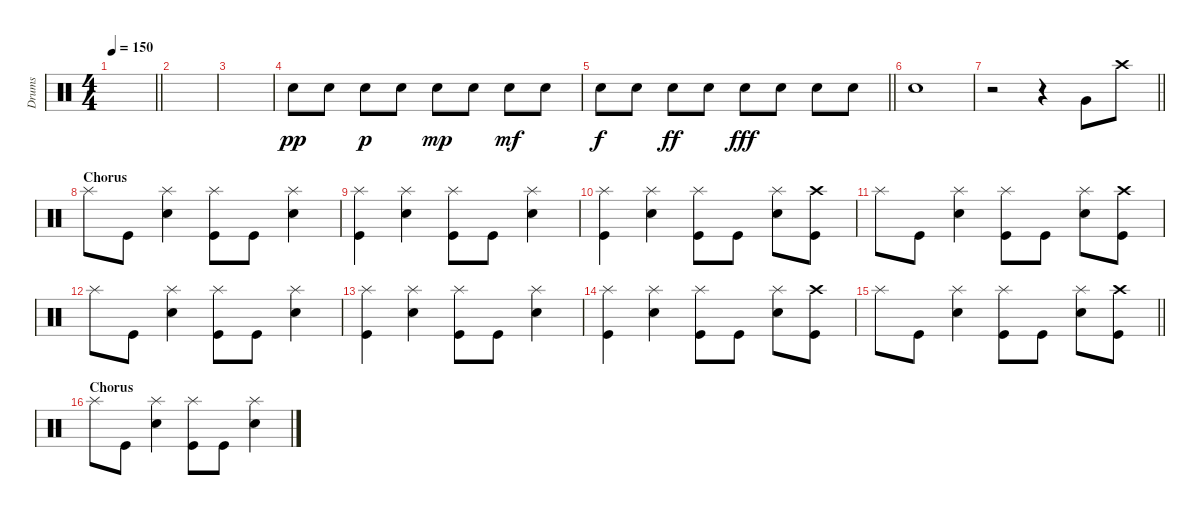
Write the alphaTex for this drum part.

\track ("Drums" "Drums") {instrument percussion}
\staff {score}
\articulation defaults
\ts (4 4)
\tempo 150
\clef neutral
\barLineRight lightlight
\ks c
|
|
|
"Snare (hit) 2".8{dy pp} "Snare (hit) 2".8 "Snare (hit) 2".8{dy p} "Snare (hit) 2".8 "Snare (hit) 2".8{dy mp} "Snare (hit) 2".8 "Snare (hit) 2".8{dy mf} "Snare (hit) 2".8 |
\barLineRight lightlight "Snare (hit) 2".8{dy f} "Snare (hit) 2".8 "Snare (hit) 2".8{dy ff} "Snare (hit) 2".8 "Snare (hit) 2".8{dy fff} "Snare (hit) 2".8 "Snare (hit) 2".8 "Snare (hit) 2".8
|
\section ("" "")
"Snare (hit) 2".1 |
\barLineRight lightlight
r.2 r.4 "Very Low Tom (hit)".8 "Crash high (hit)".8 |
\section ("" "Chorus")
"Splash (hit)".8 "Kick (hit)".8 ("Splash (hit)" "Snare (hit) 2").4 ("Splash (hit)" "Kick (hit)").8 "Kick (hit)".8 ("Splash (hit)" "Snare (hit) 2").4 |
("Splash (hit)" "Kick (hit)").4 ("Splash (hit)" "Snare (hit) 2").4 ("Splash (hit)" "Kick (hit)").8 "Kick (hit)".8 ("Splash (hit)" "Snare (hit) 2").4 |
("Splash (hit)" "Kick (hit)").4 ("Splash (hit)" "Snare (hit) 2").4 ("Splash (hit)" "Kick (hit)").8 "Kick (hit)".8 ("Splash (hit)" "Snare (hit) 2").8 ("Crash high (hit)" "Kick (hit)").8 |
"Splash (hit)".8 "Kick (hit)".8 ("Splash (hit)" "Snare (hit) 2").4 ("Splash (hit)" "Kick (hit)").8 "Kick (hit)".8 ("Splash (hit)" "Snare (hit) 2").8 ("Crash high (hit)" "Kick (hit)").8 |
"Splash (hit)".8 "Kick (hit)".8 ("Splash (hit)" "Snare (hit) 2").4 ("Splash (hit)" "Kick (hit)").8 "Kick (hit)".8 ("Splash (hit)" "Snare (hit) 2").4 |
("Splash (hit)" "Kick (hit)").4 ("Splash (hit)" "Snare (hit) 2").4 ("Splash (hit)" "Kick (hit)").8 "Kick (hit)".8 ("Splash (hit)" "Snare (hit) 2").4 |
("Splash (hit)" "Kick (hit)").4 ("Splash (hit)" "Snare (hit) 2").4 ("Splash (hit)" "Kick (hit)").8 "Kick (hit)".8 ("Splash (hit)" "Snare (hit) 2").8 ("Crash high (hit)" "Kick (hit)").8 |
\barLineRight lightlight "Splash (hit)".8 "Kick (hit)".8
("Splash (hit)" "Snare (hit) 2").4 ("Splash (hit)" "Kick (hit)").8 "Kick (hit)".8 ("Splash (hit)" "Snare (hit) 2").8 ("Crash high (hit)" "Kick (hit)").8 |
\section ("" "Chorus")
"Splash (hit)".8 "Kick (hit)".8 ("Splash (hit)" "Snare (hit) 2").4 ("Splash (hit)" "Kick (hit)").8 "Kick (hit)".8 ("Splash (hit)" "Snare (hit) 2").4
